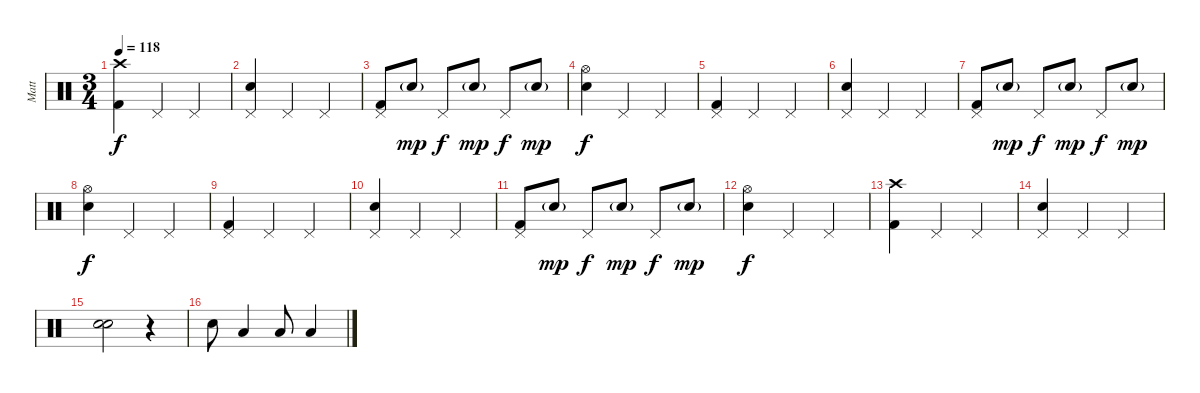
\track ("Matt" "Matt") {instrument percussion}
\staff {score}
\articulation defaults
\ts (3 4)
\tempo 118
\clef neutral
\ks c
("Crash high (hit)" "Kick (hit) 2").4{dy f} "Pedal Hi-Hat (hit)".4 "Pedal Hi-Hat (hit)".4 |
("Pedal Hi-Hat (hit)" "Snare (hit) 2").4 "Pedal Hi-Hat (hit)".4 "Pedal Hi-Hat (hit)".4 |
("Pedal Hi-Hat (hit)" "Kick (hit) 2").8 "Snare (hit) 2"{g}.8{dy mp} "Pedal Hi-Hat (hit)".8{dy f} "Snare (hit) 2"{g}.8{dy mp} "Pedal Hi-Hat (hit)".8{dy f} "Snare (hit) 2"{g}.8{dy mp} |
("Hi-Hat (open)" "Snare (hit) 2").4{dy f} "Pedal Hi-Hat (hit)".4 "Pedal Hi-Hat (hit)".4 |
("Pedal Hi-Hat (hit)" "Kick (hit) 2").4 "Pedal Hi-Hat (hit)".4 "Pedal Hi-Hat (hit)".4 |
("Pedal Hi-Hat (hit)" "Snare (hit) 2").4 "Pedal Hi-Hat (hit)".4 "Pedal Hi-Hat (hit)".4 |
("Pedal Hi-Hat (hit)" "Kick (hit) 2").8 "Snare (hit) 2"{g}.8{dy mp} "Pedal Hi-Hat (hit)".8{dy f} "Snare (hit) 2"{g}.8{dy mp} "Pedal Hi-Hat (hit)".8{dy f} "Snare (hit) 2"{g}.8{dy mp} |
("Hi-Hat (open)" "Snare (hit) 2").4{dy f} "Pedal Hi-Hat (hit)".4 "Pedal Hi-Hat (hit)".4 |
("Pedal Hi-Hat (hit)" "Kick (hit) 2").4 "Pedal Hi-Hat (hit)".4 "Pedal Hi-Hat (hit)".4 |
("Pedal Hi-Hat (hit)" "Snare (hit) 2").4 "Pedal Hi-Hat (hit)".4 "Pedal Hi-Hat (hit)".4 |
("Pedal Hi-Hat (hit)" "Kick (hit) 2").8 "Snare (hit) 2"{g}.8{dy mp} "Pedal Hi-Hat (hit)".8{dy f} "Snare (hit) 2"{g}.8{dy mp} "Pedal Hi-Hat (hit)".8{dy f} "Snare (hit) 2"{g}.8{dy mp} |
("Hi-Hat (open)" "Electric Snare (hit)").4{dy f} "Pedal Hi-Hat (hit)".4 "Pedal Hi-Hat (hit)".4 |
("Crash high (hit)" "Kick (hit) 2").4 "Pedal Hi-Hat (hit)".4 "Pedal Hi-Hat (hit)".4 |
("Pedal Hi-Hat (hit)" "Snare (hit) 2").4 "Pedal Hi-Hat (hit)".4 "Pedal Hi-Hat (hit)".4 |
("Snare (hit) 2" "Snare (hit) 2").2{bd 120} r.4 |
"Snare (hit) 2".8 "Low Tom (hit)".4 "Low Floor Tom (hit)".8 "Low Floor Tom (hit)".4
